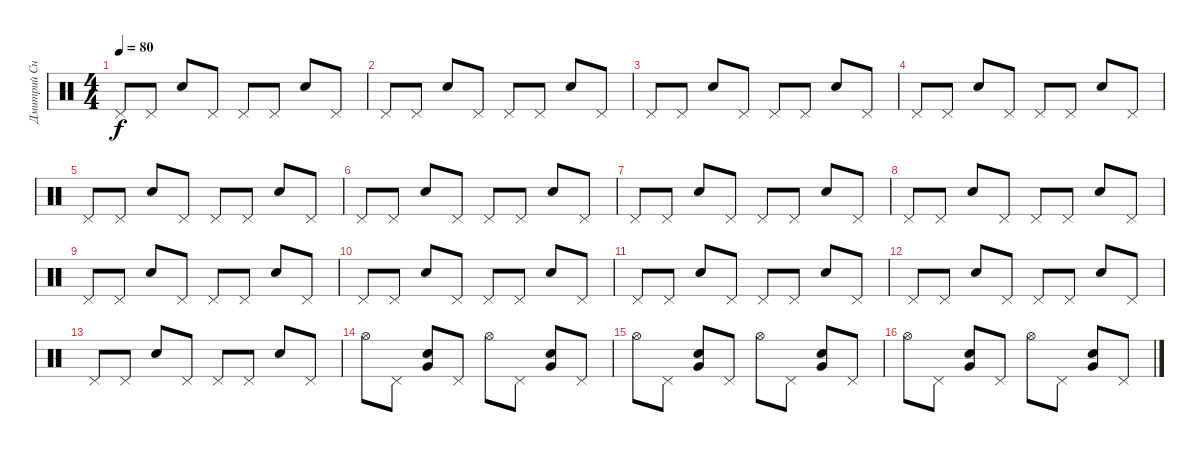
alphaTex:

\track ("Дмитрий Снэйк" "Дмитрий Сн") {instrument percussion}
\staff {score}
\articulation defaults
\ts (4 4)
\tempo 80
\clef neutral
\ks c "Pedal Hi-Hat (hit)".8{dy f} "Pedal Hi-Hat (hit)".8 "Snare (hit) 2".8 "Pedal Hi-Hat (hit)".8 "Pedal Hi-Hat (hit)".8 "Pedal Hi-Hat (hit)".8 "Snare (hit) 2".8 "Pedal Hi-Hat (hit)".8
|
"Pedal Hi-Hat (hit)".8 "Pedal Hi-Hat (hit)".8 "Snare (hit) 2".8 "Pedal Hi-Hat (hit)".8 "Pedal Hi-Hat (hit)".8 "Pedal Hi-Hat (hit)".8 "Snare (hit) 2".8 "Pedal Hi-Hat (hit)".8 |
"Pedal Hi-Hat (hit)".8 "Pedal Hi-Hat (hit)".8 "Snare (hit) 2".8 "Pedal Hi-Hat (hit)".8 "Pedal Hi-Hat (hit)".8 "Pedal Hi-Hat (hit)".8 "Snare (hit) 2".8 "Pedal Hi-Hat (hit)".8 |
"Pedal Hi-Hat (hit)".8 "Pedal Hi-Hat (hit)".8 "Snare (hit) 2".8 "Pedal Hi-Hat (hit)".8 "Pedal Hi-Hat (hit)".8 "Pedal Hi-Hat (hit)".8 "Snare (hit) 2".8 "Pedal Hi-Hat (hit)".8 |
"Pedal Hi-Hat (hit)".8 "Pedal Hi-Hat (hit)".8 "Snare (hit) 2".8 "Pedal Hi-Hat (hit)".8 "Pedal Hi-Hat (hit)".8 "Pedal Hi-Hat (hit)".8 "Snare (hit) 2".8 "Pedal Hi-Hat (hit)".8 |
"Pedal Hi-Hat (hit)".8 "Pedal Hi-Hat (hit)".8 "Snare (hit) 2".8 "Pedal Hi-Hat (hit)".8 "Pedal Hi-Hat (hit)".8 "Pedal Hi-Hat (hit)".8 "Snare (hit) 2".8 "Pedal Hi-Hat (hit)".8 |
"Pedal Hi-Hat (hit)".8 "Pedal Hi-Hat (hit)".8 "Snare (hit) 2".8 "Pedal Hi-Hat (hit)".8 "Pedal Hi-Hat (hit)".8 "Pedal Hi-Hat (hit)".8 "Snare (hit) 2".8 "Pedal Hi-Hat (hit)".8 |
"Pedal Hi-Hat (hit)".8 "Pedal Hi-Hat (hit)".8 "Snare (hit) 2".8 "Pedal Hi-Hat (hit)".8 "Pedal Hi-Hat (hit)".8 "Pedal Hi-Hat (hit)".8 "Snare (hit) 2".8 "Pedal Hi-Hat (hit)".8 |
"Pedal Hi-Hat (hit)".8 "Pedal Hi-Hat (hit)".8 "Snare (hit) 2".8 "Pedal Hi-Hat (hit)".8 "Pedal Hi-Hat (hit)".8 "Pedal Hi-Hat (hit)".8 "Snare (hit) 2".8 "Pedal Hi-Hat (hit)".8 |
"Pedal Hi-Hat (hit)".8 "Pedal Hi-Hat (hit)".8 "Snare (hit) 2".8 "Pedal Hi-Hat (hit)".8 "Pedal Hi-Hat (hit)".8 "Pedal Hi-Hat (hit)".8 "Snare (hit) 2".8 "Pedal Hi-Hat (hit)".8 |
"Pedal Hi-Hat (hit)".8 "Pedal Hi-Hat (hit)".8 "Snare (hit) 2".8 "Pedal Hi-Hat (hit)".8 "Pedal Hi-Hat (hit)".8 "Pedal Hi-Hat (hit)".8 "Snare (hit) 2".8 "Pedal Hi-Hat (hit)".8 |
"Pedal Hi-Hat (hit)".8 "Pedal Hi-Hat (hit)".8 "Snare (hit) 2".8 "Pedal Hi-Hat (hit)".8 "Pedal Hi-Hat (hit)".8 "Pedal Hi-Hat (hit)".8 "Snare (hit) 2".8 "Pedal Hi-Hat (hit)".8 |
"Pedal Hi-Hat (hit)".8 "Pedal Hi-Hat (hit)".8 "Snare (hit) 2".8 "Pedal Hi-Hat (hit)".8 "Pedal Hi-Hat (hit)".8 "Pedal Hi-Hat (hit)".8 "Snare (hit) 2".8 "Pedal Hi-Hat (hit)".8 |
"Hi-Hat (open)".8 "Pedal Hi-Hat (hit)".8 ("Snare (hit) 2" "Very Low Tom (hit)").8 "Pedal Hi-Hat (hit)".8 "Hi-Hat (open)".8 "Pedal Hi-Hat (hit)".8 ("Snare (hit) 2" "Very Low Tom (hit)").8 "Pedal Hi-Hat (hit)".8 |
"Hi-Hat (open)".8 "Pedal Hi-Hat (hit)".8 ("Snare (hit) 2" "Very Low Tom (hit)").8 "Pedal Hi-Hat (hit)".8 "Hi-Hat (open)".8 "Pedal Hi-Hat (hit)".8 ("Snare (hit) 2" "Very Low Tom (hit)").8 "Pedal Hi-Hat (hit)".8 |
"Hi-Hat (open)".8 "Pedal Hi-Hat (hit)".8 ("Snare (hit) 2" "Very Low Tom (hit)").8 "Pedal Hi-Hat (hit)".8 "Hi-Hat (open)".8 "Pedal Hi-Hat (hit)".8 ("Snare (hit) 2" "Very Low Tom (hit)").8 "Pedal Hi-Hat (hit)".8
